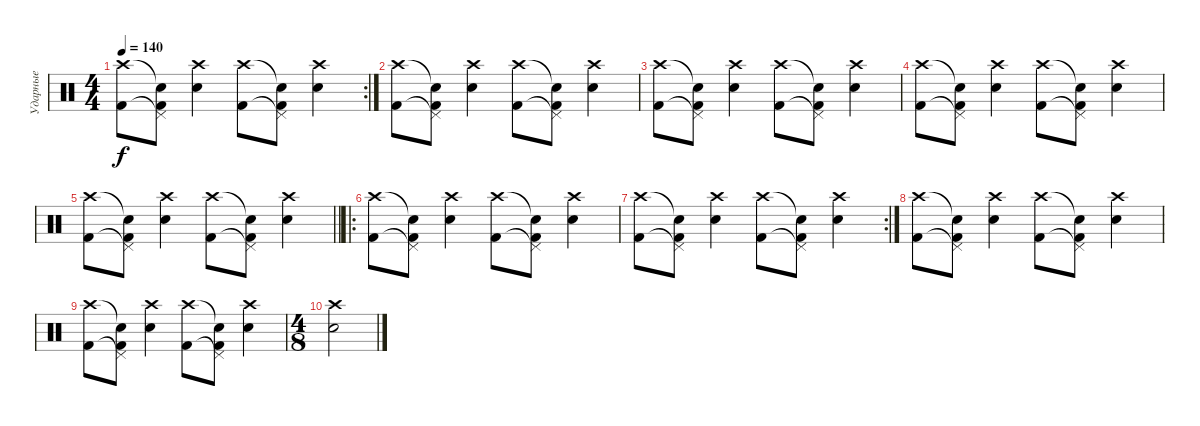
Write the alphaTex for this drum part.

\track ("Ударные" "Ударные") {instrument percussion}
\staff {score}
\articulation defaults
\rc 2
\ts (4 4)
\tempo 140
\clef neutral
\ks c
("Crash high (hit)" "Kick (hit) 2").8{dy f} ("Snare (hit)"{t} "Pedal Hi-Hat (hit)"{t} "Kick (hit) 2").8 ("Crash high (hit)" "Snare (hit) 2").4 ("Crash high (hit)" "Kick (hit) 2").8 ("Snare (hit)"{t} "Pedal Hi-Hat (hit)"{t} "Kick (hit) 2").8 ("Crash high (hit)" "Snare (hit) 2").4 |
("Crash high (hit)" "Kick (hit) 2").8 ("Snare (hit)"{t} "Pedal Hi-Hat (hit)"{t} "Kick (hit) 2").8 ("Crash high (hit)" "Snare (hit) 2").4 ("Crash high (hit)" "Kick (hit) 2").8 ("Snare (hit)"{t} "Pedal Hi-Hat (hit)"{t} "Kick (hit) 2").8 ("Crash high (hit)" "Snare (hit) 2").4 |
("Crash high (hit)" "Kick (hit) 2").8 ("Snare (hit)"{t} "Pedal Hi-Hat (hit)"{t} "Kick (hit) 2").8 ("Crash high (hit)" "Snare (hit) 2").4 ("Crash high (hit)" "Kick (hit) 2").8 ("Snare (hit)"{t} "Pedal Hi-Hat (hit)"{t} "Kick (hit) 2").8 ("Crash high (hit)" "Snare (hit) 2").4 |
("Crash high (hit)" "Kick (hit) 2").8 ("Snare (hit)"{t} "Pedal Hi-Hat (hit)"{t} "Kick (hit) 2").8 ("Crash high (hit)" "Snare (hit) 2").4 ("Crash high (hit)" "Kick (hit) 2").8 ("Snare (hit)"{t} "Pedal Hi-Hat (hit)"{t} "Kick (hit) 2").8 ("Crash high (hit)" "Snare (hit) 2").4 |
\barLineRight lightlight
("Crash high (hit)" "Kick (hit) 2").8 ("Snare (hit)"{t} "Pedal Hi-Hat (hit)"{t} "Kick (hit) 2").8 ("Crash high (hit)" "Snare (hit) 2").4 ("Crash high (hit)" "Kick (hit) 2").8 ("Snare (hit)"{t} "Pedal Hi-Hat (hit)"{t} "Kick (hit) 2").8 ("Crash high (hit)" "Snare (hit) 2").4 |
\ro
("Crash high (hit)" "Kick (hit) 2").8 ("Snare (hit)"{t} "Pedal Hi-Hat (hit)"{t} "Kick (hit) 2").8 ("Crash high (hit)" "Snare (hit) 2").4 ("Crash high (hit)" "Kick (hit) 2").8 ("Snare (hit)"{t} "Pedal Hi-Hat (hit)"{t} "Kick (hit) 2").8 ("Crash high (hit)" "Snare (hit) 2").4 |
\rc 2
("Crash high (hit)" "Kick (hit) 2").8 ("Snare (hit)"{t} "Pedal Hi-Hat (hit)"{t} "Kick (hit) 2").8 ("Crash high (hit)" "Snare (hit) 2").4 ("Crash high (hit)" "Kick (hit) 2").8 ("Snare (hit)"{t} "Pedal Hi-Hat (hit)"{t} "Kick (hit) 2").8 ("Crash high (hit)" "Snare (hit) 2").4 |
("Crash high (hit)" "Kick (hit) 2").8 ("Snare (hit)"{t} "Pedal Hi-Hat (hit)"{t} "Kick (hit) 2").8 ("Crash high (hit)" "Snare (hit) 2").4 ("Crash high (hit)" "Kick (hit) 2").8 ("Snare (hit)"{t} "Pedal Hi-Hat (hit)"{t} "Kick (hit) 2").8 ("Crash high (hit)" "Snare (hit) 2").4 |
("Crash high (hit)" "Kick (hit) 2").8 ("Snare (hit)"{t} "Pedal Hi-Hat (hit)"{t} "Kick (hit) 2").8 ("Crash high (hit)" "Snare (hit) 2").4 ("Crash high (hit)" "Kick (hit) 2").8 ("Snare (hit)"{t} "Pedal Hi-Hat (hit)"{t} "Kick (hit) 2").8 ("Crash high (hit)" "Snare (hit) 2").4 |
\ts (4 8)
("Crash high (hit)" "Snare (hit) 2").2
